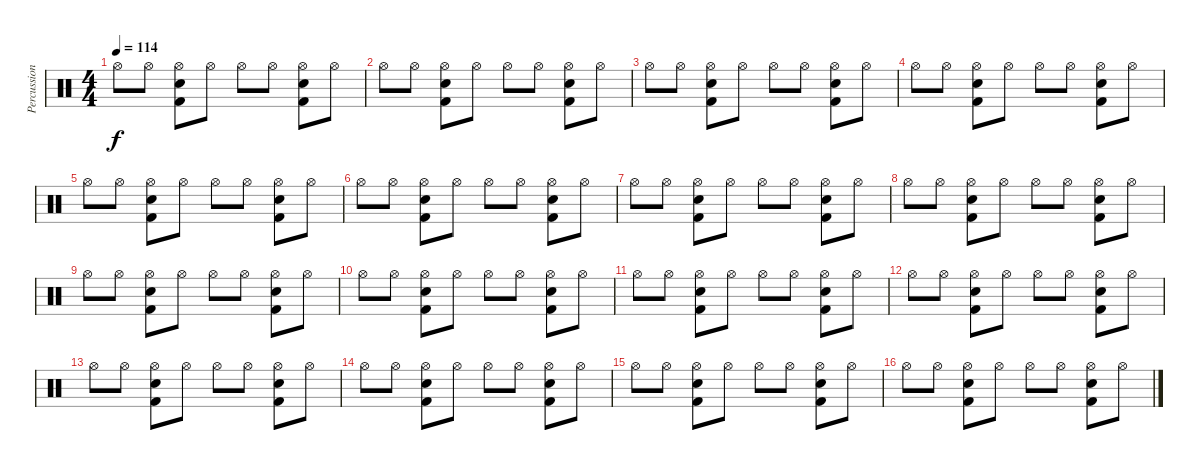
\track ("Percussion" "Percussion") {instrument percussion}
\staff {score}
\articulation defaults
\ts (4 4)
\tempo 114
\clef neutral
\ks c "Hi-Hat (open)".8{dy f} "Hi-Hat (open)".8
("Hi-Hat (open)" "Snare (hit) 2" "Kick (hit) 2").8 "Hi-Hat (open)".8 "Hi-Hat (open)".8 "Hi-Hat (open)".8 ("Hi-Hat (open)" "Snare (hit) 2" "Kick (hit) 2").8 "Hi-Hat (open)".8 |
"Hi-Hat (open)".8 "Hi-Hat (open)".8 ("Hi-Hat (open)" "Snare (hit) 2" "Kick (hit) 2").8 "Hi-Hat (open)".8 "Hi-Hat (open)".8 "Hi-Hat (open)".8 ("Hi-Hat (open)" "Snare (hit) 2" "Kick (hit) 2").8 "Hi-Hat (open)".8 |
"Hi-Hat (open)".8 "Hi-Hat (open)".8 ("Hi-Hat (open)" "Snare (hit) 2" "Kick (hit) 2").8 "Hi-Hat (open)".8 "Hi-Hat (open)".8 "Hi-Hat (open)".8 ("Hi-Hat (open)" "Snare (hit) 2" "Kick (hit) 2").8 "Hi-Hat (open)".8 |
"Hi-Hat (open)".8 "Hi-Hat (open)".8 ("Hi-Hat (open)" "Snare (hit) 2" "Kick (hit) 2").8 "Hi-Hat (open)".8 "Hi-Hat (open)".8 "Hi-Hat (open)".8 ("Hi-Hat (open)" "Snare (hit) 2" "Kick (hit) 2").8 "Hi-Hat (open)".8 |
"Hi-Hat (open)".8 "Hi-Hat (open)".8 ("Hi-Hat (open)" "Snare (hit) 2" "Kick (hit) 2").8 "Hi-Hat (open)".8 "Hi-Hat (open)".8 "Hi-Hat (open)".8 ("Hi-Hat (open)" "Snare (hit) 2" "Kick (hit) 2").8 "Hi-Hat (open)".8 |
"Hi-Hat (open)".8 "Hi-Hat (open)".8 ("Hi-Hat (open)" "Snare (hit) 2" "Kick (hit) 2").8 "Hi-Hat (open)".8 "Hi-Hat (open)".8 "Hi-Hat (open)".8 ("Hi-Hat (open)" "Snare (hit) 2" "Kick (hit) 2").8 "Hi-Hat (open)".8 |
"Hi-Hat (open)".8 "Hi-Hat (open)".8 ("Hi-Hat (open)" "Snare (hit) 2" "Kick (hit) 2").8 "Hi-Hat (open)".8 "Hi-Hat (open)".8 "Hi-Hat (open)".8 ("Hi-Hat (open)" "Snare (hit) 2" "Kick (hit) 2").8 "Hi-Hat (open)".8 |
"Hi-Hat (open)".8 "Hi-Hat (open)".8 ("Hi-Hat (open)" "Snare (hit) 2" "Kick (hit) 2").8 "Hi-Hat (open)".8 "Hi-Hat (open)".8 "Hi-Hat (open)".8 ("Hi-Hat (open)" "Snare (hit) 2" "Kick (hit) 2").8 "Hi-Hat (open)".8 |
"Hi-Hat (open)".8 "Hi-Hat (open)".8 ("Hi-Hat (open)" "Snare (hit) 2" "Kick (hit) 2").8 "Hi-Hat (open)".8 "Hi-Hat (open)".8 "Hi-Hat (open)".8 ("Hi-Hat (open)" "Snare (hit) 2" "Kick (hit) 2").8 "Hi-Hat (open)".8 |
"Hi-Hat (open)".8 "Hi-Hat (open)".8 ("Hi-Hat (open)" "Snare (hit) 2" "Kick (hit) 2").8 "Hi-Hat (open)".8 "Hi-Hat (open)".8 "Hi-Hat (open)".8 ("Hi-Hat (open)" "Snare (hit) 2" "Kick (hit) 2").8 "Hi-Hat (open)".8 |
"Hi-Hat (open)".8 "Hi-Hat (open)".8 ("Hi-Hat (open)" "Snare (hit) 2" "Kick (hit) 2").8 "Hi-Hat (open)".8 "Hi-Hat (open)".8 "Hi-Hat (open)".8 ("Hi-Hat (open)" "Snare (hit) 2" "Kick (hit) 2").8 "Hi-Hat (open)".8 |
"Hi-Hat (open)".8 "Hi-Hat (open)".8 ("Hi-Hat (open)" "Snare (hit) 2" "Kick (hit) 2").8 "Hi-Hat (open)".8 "Hi-Hat (open)".8 "Hi-Hat (open)".8 ("Hi-Hat (open)" "Snare (hit) 2" "Kick (hit) 2").8 "Hi-Hat (open)".8 |
"Hi-Hat (open)".8 "Hi-Hat (open)".8 ("Hi-Hat (open)" "Snare (hit) 2" "Kick (hit) 2").8 "Hi-Hat (open)".8 "Hi-Hat (open)".8 "Hi-Hat (open)".8 ("Hi-Hat (open)" "Snare (hit) 2" "Kick (hit) 2").8 "Hi-Hat (open)".8 |
"Hi-Hat (open)".8 "Hi-Hat (open)".8 ("Hi-Hat (open)" "Snare (hit) 2" "Kick (hit) 2").8 "Hi-Hat (open)".8 "Hi-Hat (open)".8 "Hi-Hat (open)".8 ("Hi-Hat (open)" "Snare (hit) 2" "Kick (hit) 2").8 "Hi-Hat (open)".8 |
"Hi-Hat (open)".8 "Hi-Hat (open)".8 ("Hi-Hat (open)" "Snare (hit) 2" "Kick (hit) 2").8 "Hi-Hat (open)".8 "Hi-Hat (open)".8 "Hi-Hat (open)".8 ("Hi-Hat (open)" "Snare (hit) 2" "Kick (hit) 2").8 "Hi-Hat (open)".8 |
"Hi-Hat (open)".8 "Hi-Hat (open)".8 ("Hi-Hat (open)" "Snare (hit) 2" "Kick (hit) 2").8 "Hi-Hat (open)".8 "Hi-Hat (open)".8 "Hi-Hat (open)".8 ("Hi-Hat (open)" "Snare (hit) 2" "Kick (hit) 2").8 "Hi-Hat (open)".8
